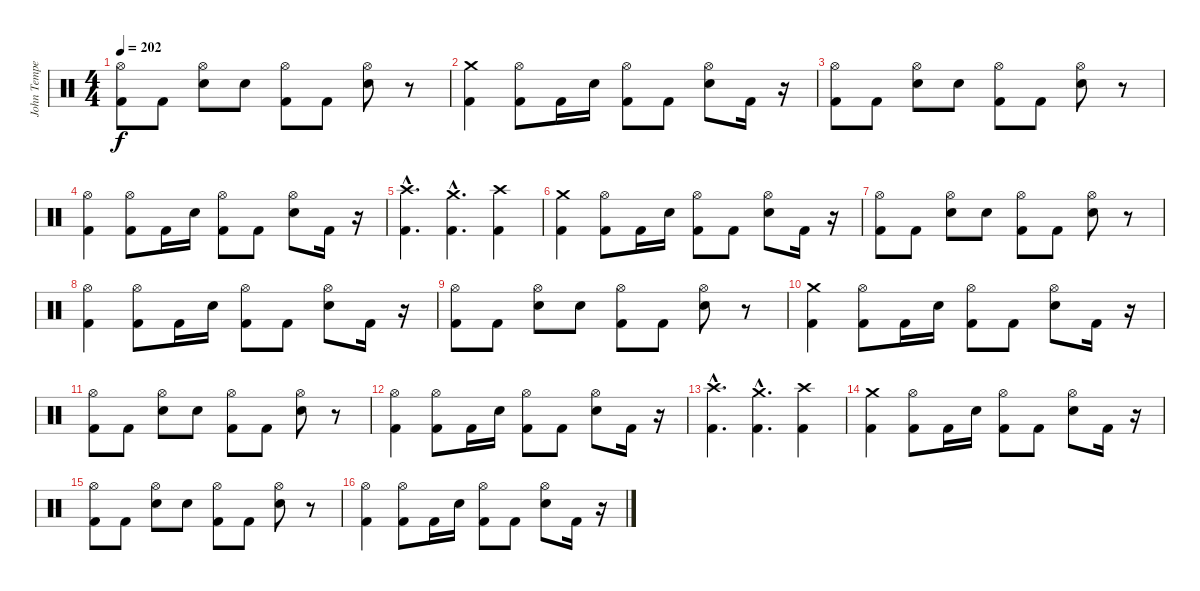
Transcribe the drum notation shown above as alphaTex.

\track ("John Tempesta" "John Tempe") {instrument percussion}
\staff {score}
\articulation defaults
\ts (4 4)
\tempo 202
\clef neutral
\ks c
("Kick (hit) 2" "Hi-Hat (open)").8{dy f} "Kick (hit) 2".8 ("Snare (hit) 2" "Hi-Hat (open)").8 "Snare (hit) 2".8 ("Kick (hit) 2" "Hi-Hat (open)").8 "Kick (hit) 2".8 ("Snare (hit) 2" "Hi-Hat (open)").8 r.8 |
("Kick (hit) 2" "Crash medium (hit)").4 ("Kick (hit) 2" "Hi-Hat (open)").8 "Kick (hit) 2".16 "Snare (hit) 2".16 ("Hi-Hat (open)" "Kick (hit) 2").8 "Kick (hit) 2".8 ("Snare (hit) 2" "Hi-Hat (open)").8 "Kick (hit) 2".16 r.16 |
("Kick (hit) 2" "Hi-Hat (open)").8 "Kick (hit) 2".8 ("Snare (hit) 2" "Hi-Hat (open)").8 "Snare (hit) 2".8 ("Kick (hit) 2" "Hi-Hat (open)").8 "Kick (hit) 2".8 ("Snare (hit) 2" "Hi-Hat (open)").8 r.8 |
("Kick (hit) 2" "Hi-Hat (open)").4 ("Kick (hit) 2" "Hi-Hat (open)").8 "Kick (hit) 2".16 "Snare (hit) 2".16 ("Hi-Hat (open)" "Kick (hit) 2").8 "Kick (hit) 2".8 ("Snare (hit) 2" "Hi-Hat (open)").8 "Kick (hit) 2".16 r.16 |
("Kick (hit) 2"{hac} "Crash high (hit)"{hac}).4{d} ("Kick (hit) 2"{hac} "Crash medium (hit)"{hac}).4{d} ("Kick (hit) 2" "Crash high (hit)").4 |
("Kick (hit) 2" "Crash medium (hit)").4 ("Kick (hit) 2" "Hi-Hat (open)").8 "Kick (hit) 2".16 "Snare (hit) 2".16 ("Hi-Hat (open)" "Kick (hit) 2").8 "Kick (hit) 2".8 ("Snare (hit) 2" "Hi-Hat (open)").8 "Kick (hit) 2".16 r.16 |
("Kick (hit) 2" "Hi-Hat (open)").8 "Kick (hit) 2".8 ("Snare (hit) 2" "Hi-Hat (open)").8 "Snare (hit) 2".8 ("Kick (hit) 2" "Hi-Hat (open)").8 "Kick (hit) 2".8 ("Snare (hit) 2" "Hi-Hat (open)").8 r.8 |
("Kick (hit) 2" "Hi-Hat (open)").4 ("Kick (hit) 2" "Hi-Hat (open)").8 "Kick (hit) 2".16 "Snare (hit) 2".16 ("Hi-Hat (open)" "Kick (hit) 2").8 "Kick (hit) 2".8 ("Snare (hit) 2" "Hi-Hat (open)").8 "Kick (hit) 2".16 r.16 |
("Kick (hit) 2" "Hi-Hat (open)").8 "Kick (hit) 2".8 ("Snare (hit) 2" "Hi-Hat (open)").8 "Snare (hit) 2".8 ("Kick (hit) 2" "Hi-Hat (open)").8 "Kick (hit) 2".8 ("Snare (hit) 2" "Hi-Hat (open)").8 r.8 |
("Kick (hit) 2" "Crash medium (hit)").4 ("Kick (hit) 2" "Hi-Hat (open)").8 "Kick (hit) 2".16 "Snare (hit) 2".16 ("Hi-Hat (open)" "Kick (hit) 2").8 "Kick (hit) 2".8 ("Snare (hit) 2" "Hi-Hat (open)").8 "Kick (hit) 2".16 r.16 |
("Kick (hit) 2" "Hi-Hat (open)").8 "Kick (hit) 2".8 ("Snare (hit) 2" "Hi-Hat (open)").8 "Snare (hit) 2".8 ("Kick (hit) 2" "Hi-Hat (open)").8 "Kick (hit) 2".8 ("Snare (hit) 2" "Hi-Hat (open)").8 r.8 |
("Kick (hit) 2" "Hi-Hat (open)").4 ("Kick (hit) 2" "Hi-Hat (open)").8 "Kick (hit) 2".16 "Snare (hit) 2".16 ("Hi-Hat (open)" "Kick (hit) 2").8 "Kick (hit) 2".8 ("Snare (hit) 2" "Hi-Hat (open)").8 "Kick (hit) 2".16 r.16 |
("Kick (hit) 2"{hac} "Crash high (hit)"{hac}).4{d} ("Kick (hit) 2"{hac} "Crash medium (hit)"{hac}).4{d} ("Kick (hit) 2" "Crash high (hit)").4 |
("Kick (hit) 2" "Crash medium (hit)").4 ("Kick (hit) 2" "Hi-Hat (open)").8 "Kick (hit) 2".16 "Snare (hit) 2".16 ("Hi-Hat (open)" "Kick (hit) 2").8 "Kick (hit) 2".8 ("Snare (hit) 2" "Hi-Hat (open)").8 "Kick (hit) 2".16 r.16 |
("Kick (hit) 2" "Hi-Hat (open)").8 "Kick (hit) 2".8 ("Snare (hit) 2" "Hi-Hat (open)").8 "Snare (hit) 2".8 ("Kick (hit) 2" "Hi-Hat (open)").8 "Kick (hit) 2".8 ("Snare (hit) 2" "Hi-Hat (open)").8 r.8 |
("Kick (hit) 2" "Hi-Hat (open)").4 ("Kick (hit) 2" "Hi-Hat (open)").8 "Kick (hit) 2".16 "Snare (hit) 2".16 ("Hi-Hat (open)" "Kick (hit) 2").8 "Kick (hit) 2".8 ("Snare (hit) 2" "Hi-Hat (open)").8 "Kick (hit) 2".16 r.16
